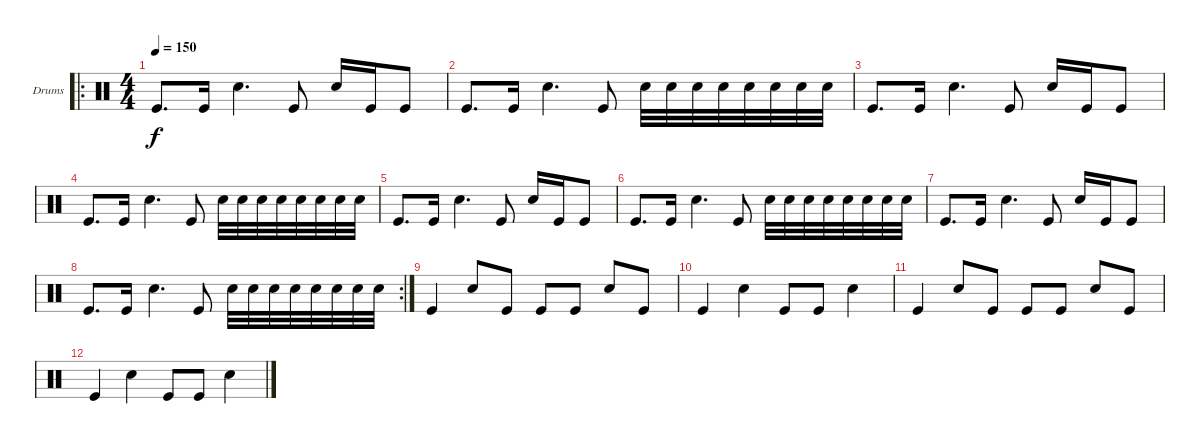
\defaultSystemsLayout 4
\bracketExtendMode groupsimilarinstruments
\firstSystemTrackNameOrientation horizontal
\otherSystemsTrackNameOrientation horizontal
\track ("Drumkit" "Drums") {instrument percussion}
\staff {score}
\articulation defaults
\ro
\ts (4 4)
\tempo 150
\clef neutral
\scale
0.377778
\ks c "Kick (hit)".8{d dy f} "Kick (hit)".16 "Snare (hit) 2".4{d} "Kick (hit)".8 "Snare (hit) 2".16 "Kick (hit)".16 "Kick (hit)".8
|
\scale
0.333333 "Kick (hit)".8{d} "Kick (hit)".16 "Snare (hit) 2".4{d} "Kick (hit)".8 "Snare (hit) 2".32 "Snare (hit) 2".32 "Snare (hit) 2".32 "Snare (hit) 2".32 "Snare (hit) 2".32 "Snare (hit) 2".32 "Snare (hit) 2".32 "Snare (hit) 2".32 |
\scale
0.333333 "Kick (hit)".8{d} "Kick (hit)".16 "Snare (hit) 2".4{d} "Kick (hit)".8 "Snare (hit) 2".16 "Kick (hit)".16 "Kick (hit)".8 |
\scale
0.333333 "Kick (hit)".8{d} "Kick (hit)".16 "Snare (hit) 2".4{d} "Kick (hit)".8 "Snare (hit) 2".32 "Snare (hit) 2".32 "Snare (hit) 2".32 "Snare (hit) 2".32 "Snare (hit) 2".32 "Snare (hit) 2".32 "Snare (hit) 2".32 "Snare (hit) 2".32 |
\scale
0.333333 "Kick (hit)".8{d} "Kick (hit)".16 "Snare (hit) 2".4{d} "Kick (hit)".8 "Snare (hit) 2".16 "Kick (hit)".16 "Kick (hit)".8 |
\scale
0.333333 "Kick (hit)".8{d} "Kick (hit)".16 "Snare (hit) 2".4{d} "Kick (hit)".8 "Snare (hit) 2".32 "Snare (hit) 2".32 "Snare (hit) 2".32 "Snare (hit) 2".32 "Snare (hit) 2".32 "Snare (hit) 2".32 "Snare (hit) 2".32 "Snare (hit) 2".32 |
\scale
0.333333 "Kick (hit)".8{d} "Kick (hit)".16 "Snare (hit) 2".4{d} "Kick (hit)".8 "Snare (hit) 2".16 "Kick (hit)".16 "Kick (hit)".8 |
\rc 2
\scale
0.356322 "Kick (hit)".8{d} "Kick (hit)".16 "Snare (hit) 2".4{d} "Kick (hit)".8 "Snare (hit) 2".32 "Snare (hit) 2".32 "Snare (hit) 2".32 "Snare (hit) 2".32 "Snare (hit) 2".32 "Snare (hit) 2".32 "Snare (hit) 2".32 "Snare (hit) 2".32 |
\scale
0.321839 "Kick (hit)".4 "Snare (hit) 2".8 "Kick (hit)".8 "Kick (hit)".8 "Kick (hit)".8 "Snare (hit) 2".8 "Kick (hit)".8 |
\scale
0.321839 "Kick (hit)".4 "Snare (hit) 2".4 "Kick (hit)".8 "Kick (hit)".8 "Snare (hit) 2".4 |
\scale
0.333333 "Kick (hit)".4 "Snare (hit) 2".8 "Kick (hit)".8 "Kick (hit)".8 "Kick (hit)".8 "Snare (hit) 2".8 "Kick (hit)".8 |
\scale
0.333333 "Kick (hit)".4 "Snare (hit) 2".4 "Kick (hit)".8 "Kick (hit)".8 "Snare (hit) 2".4 |
\scale
0.333333
